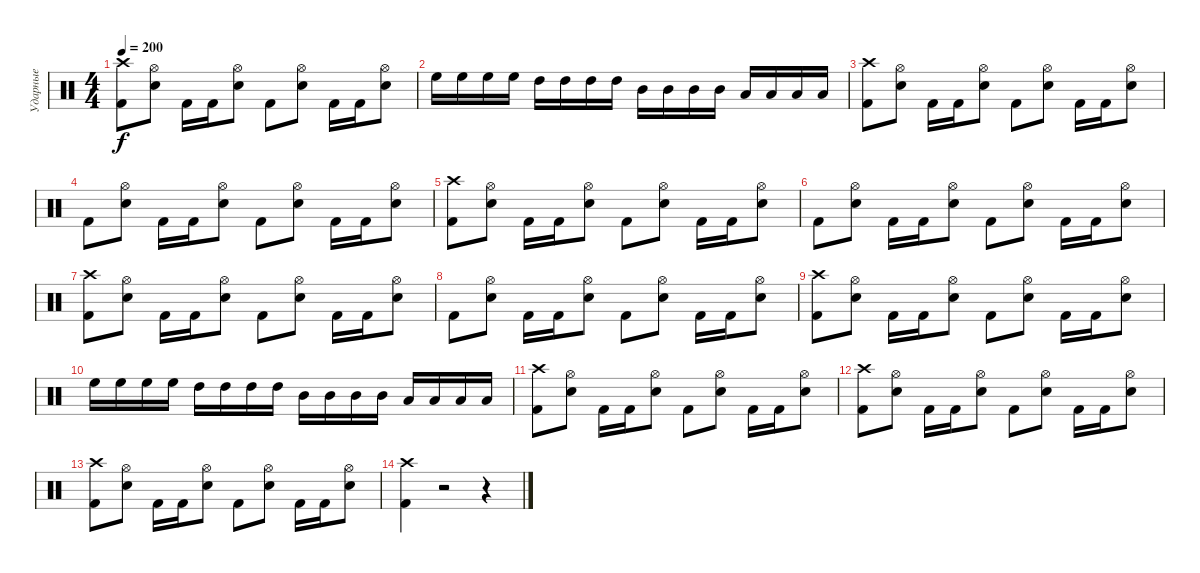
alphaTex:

\track ("Ударные" "Ударные") {instrument percussion}
\staff {score}
\articulation defaults
\ts (4 4)
\tempo 200
\clef neutral
\ks c
("Crash high (hit)" "Kick (hit) 2").8{dy f} ("Hi-Hat (open)" "Snare (hit) 2").8 "Kick (hit) 2".16 "Kick (hit) 2".16 ("Hi-Hat (open)" "Snare (hit) 2").8 "Kick (hit) 2".8 ("Hi-Hat (open)" "Snare (hit) 2").8 "Kick (hit) 2".16 "Kick (hit) 2".16 ("Hi-Hat (open)" "Snare (hit) 2").8 |
"High Floor Tom (hit)".16 "High Floor Tom (hit)".16 "High Floor Tom (hit)".16 "High Floor Tom (hit)".16 "High Tom (hit)".16 "High Tom (hit)".16 "High Tom (hit)".16 "High Tom (hit)".16 "Mid Tom (hit)".16 "Mid Tom (hit)".16 "Mid Tom (hit)".16 "Mid Tom (hit)".16 "Low Tom (hit)".16 "Low Tom (hit)".16 "Low Tom (hit)".16 "Low Tom (hit)".16 |
("Crash high (hit)" "Kick (hit) 2").8 ("Hi-Hat (open)" "Snare (hit) 2").8 "Kick (hit) 2".16 "Kick (hit) 2".16 ("Hi-Hat (open)" "Snare (hit) 2").8 "Kick (hit) 2".8 ("Hi-Hat (open)" "Snare (hit) 2").8 "Kick (hit) 2".16 "Kick (hit) 2".16 ("Hi-Hat (open)" "Snare (hit) 2").8 |
"Kick (hit) 2".8 ("Hi-Hat (open)" "Snare (hit) 2").8 "Kick (hit) 2".16 "Kick (hit) 2".16 ("Hi-Hat (open)" "Snare (hit) 2").8 "Kick (hit) 2".8 ("Hi-Hat (open)" "Snare (hit) 2").8 "Kick (hit) 2".16 "Kick (hit) 2".16 ("Hi-Hat (open)" "Snare (hit) 2").8 |
("Crash high (hit)" "Kick (hit) 2").8 ("Hi-Hat (open)" "Snare (hit) 2").8 "Kick (hit) 2".16 "Kick (hit) 2".16 ("Hi-Hat (open)" "Snare (hit) 2").8 "Kick (hit) 2".8 ("Hi-Hat (open)" "Snare (hit) 2").8 "Kick (hit) 2".16 "Kick (hit) 2".16 ("Hi-Hat (open)" "Snare (hit) 2").8 |
"Kick (hit) 2".8 ("Hi-Hat (open)" "Snare (hit) 2").8 "Kick (hit) 2".16 "Kick (hit) 2".16 ("Hi-Hat (open)" "Snare (hit) 2").8 "Kick (hit) 2".8 ("Hi-Hat (open)" "Snare (hit) 2").8 "Kick (hit) 2".16 "Kick (hit) 2".16 ("Hi-Hat (open)" "Snare (hit) 2").8 |
("Crash high (hit)" "Kick (hit) 2").8 ("Hi-Hat (open)" "Snare (hit) 2").8 "Kick (hit) 2".16 "Kick (hit) 2".16 ("Hi-Hat (open)" "Snare (hit) 2").8 "Kick (hit) 2".8 ("Hi-Hat (open)" "Snare (hit) 2").8 "Kick (hit) 2".16 "Kick (hit) 2".16 ("Hi-Hat (open)" "Snare (hit) 2").8 |
"Kick (hit) 2".8 ("Hi-Hat (open)" "Snare (hit) 2").8 "Kick (hit) 2".16 "Kick (hit) 2".16 ("Hi-Hat (open)" "Snare (hit) 2").8 "Kick (hit) 2".8 ("Hi-Hat (open)" "Snare (hit) 2").8 "Kick (hit) 2".16 "Kick (hit) 2".16 ("Hi-Hat (open)" "Snare (hit) 2").8 |
("Crash high (hit)" "Kick (hit) 2").8 ("Hi-Hat (open)" "Snare (hit) 2").8 "Kick (hit) 2".16 "Kick (hit) 2".16 ("Hi-Hat (open)" "Snare (hit) 2").8 "Kick (hit) 2".8 ("Hi-Hat (open)" "Snare (hit) 2").8 "Kick (hit) 2".16 "Kick (hit) 2".16 ("Hi-Hat (open)" "Snare (hit) 2").8 |
"High Floor Tom (hit)".16 "High Floor Tom (hit)".16 "High Floor Tom (hit)".16 "High Floor Tom (hit)".16 "High Tom (hit)".16 "High Tom (hit)".16 "High Tom (hit)".16 "High Tom (hit)".16 "Mid Tom (hit)".16 "Mid Tom (hit)".16 "Mid Tom (hit)".16 "Mid Tom (hit)".16 "Low Tom (hit)".16 "Low Tom (hit)".16 "Low Tom (hit)".16 "Low Tom (hit)".16 |
("Crash high (hit)" "Kick (hit) 2").8 ("Hi-Hat (open)" "Snare (hit) 2").8 "Kick (hit) 2".16 "Kick (hit) 2".16 ("Hi-Hat (open)" "Snare (hit) 2").8 "Kick (hit) 2".8 ("Hi-Hat (open)" "Snare (hit) 2").8 "Kick (hit) 2".16 "Kick (hit) 2".16 ("Hi-Hat (open)" "Snare (hit) 2").8 |
("Crash high (hit)" "Kick (hit) 2").8 ("Hi-Hat (open)" "Snare (hit) 2").8 "Kick (hit) 2".16 "Kick (hit) 2".16 ("Hi-Hat (open)" "Snare (hit) 2").8 "Kick (hit) 2".8 ("Hi-Hat (open)" "Snare (hit) 2").8 "Kick (hit) 2".16 "Kick (hit) 2".16 ("Hi-Hat (open)" "Snare (hit) 2").8 |
("Crash high (hit)" "Kick (hit) 2").8 ("Hi-Hat (open)" "Snare (hit) 2").8 "Kick (hit) 2".16 "Kick (hit) 2".16 ("Hi-Hat (open)" "Snare (hit) 2").8 "Kick (hit) 2".8 ("Hi-Hat (open)" "Snare (hit) 2").8 "Kick (hit) 2".16 "Kick (hit) 2".16 ("Hi-Hat (open)" "Snare (hit) 2").8 |
("Crash high (hit)" "Kick (hit) 2").4 r.2 r.4
